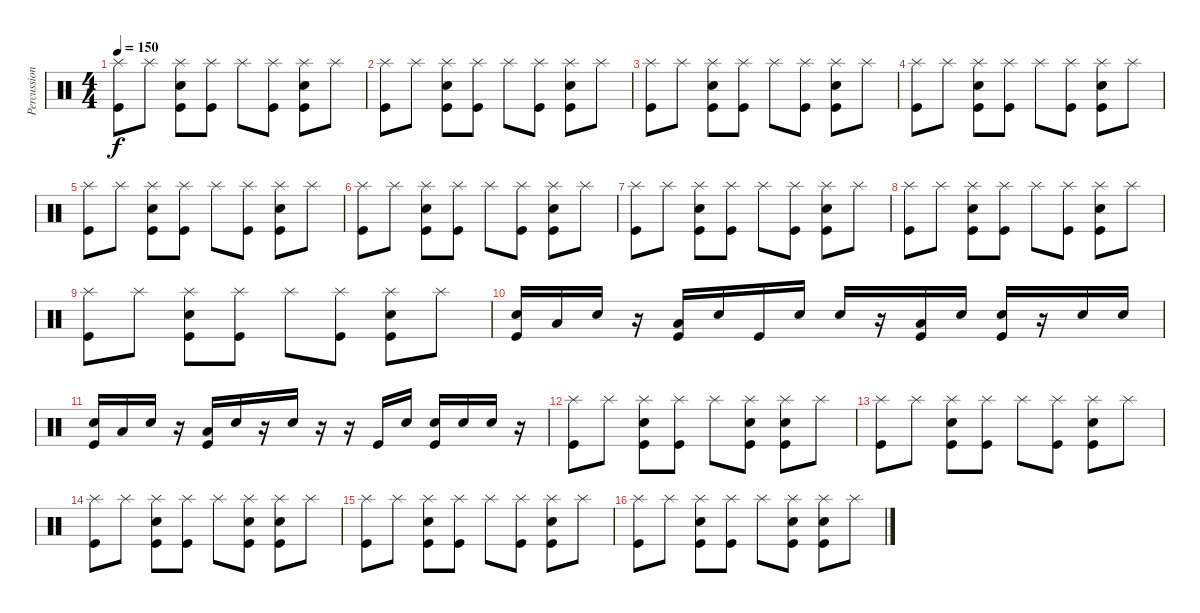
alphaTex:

\track ("Percussion" "Percussion") {instrument percussion}
\staff {score}
\articulation defaults
\ts (4 4)
\tempo 150
\clef neutral
\ks c
("Splash (hit)" "Kick (hit)").8{dy f} "Splash (hit)".8 ("Splash (hit)" "Snare (hit) 2" "Kick (hit)").8 ("Splash (hit)" "Kick (hit)").8 "Splash (hit)".8 ("Splash (hit)" "Kick (hit)").8 ("Splash (hit)" "Snare (hit) 2" "Kick (hit)").8 "Splash (hit)".8 |
("Splash (hit)" "Kick (hit)").8 "Splash (hit)".8 ("Splash (hit)" "Snare (hit) 2" "Kick (hit)").8 ("Splash (hit)" "Kick (hit)").8 "Splash (hit)".8 ("Splash (hit)" "Kick (hit)").8 ("Splash (hit)" "Snare (hit) 2" "Kick (hit)").8 "Splash (hit)".8 |
("Splash (hit)" "Kick (hit)").8 "Splash (hit)".8 ("Splash (hit)" "Snare (hit) 2" "Kick (hit)").8 ("Splash (hit)" "Kick (hit)").8 "Splash (hit)".8 ("Splash (hit)" "Kick (hit)").8 ("Splash (hit)" "Snare (hit) 2" "Kick (hit)").8 "Splash (hit)".8 |
("Splash (hit)" "Kick (hit)").8 "Splash (hit)".8 ("Splash (hit)" "Snare (hit) 2" "Kick (hit)").8 ("Splash (hit)" "Kick (hit)").8 "Splash (hit)".8 ("Splash (hit)" "Kick (hit)").8 ("Splash (hit)" "Snare (hit) 2" "Kick (hit)").8 "Splash (hit)".8 |
("Splash (hit)" "Kick (hit)").8 "Splash (hit)".8 ("Splash (hit)" "Snare (hit) 2" "Kick (hit)").8 ("Splash (hit)" "Kick (hit)").8 "Splash (hit)".8 ("Splash (hit)" "Kick (hit)").8 ("Splash (hit)" "Snare (hit) 2" "Kick (hit)").8 "Splash (hit)".8 |
("Splash (hit)" "Kick (hit)").8 "Splash (hit)".8 ("Splash (hit)" "Snare (hit) 2" "Kick (hit)").8 ("Splash (hit)" "Kick (hit)").8 "Splash (hit)".8 ("Splash (hit)" "Kick (hit)").8 ("Splash (hit)" "Snare (hit) 2" "Kick (hit)").8 "Splash (hit)".8 |
("Splash (hit)" "Kick (hit)").8 "Splash (hit)".8 ("Splash (hit)" "Snare (hit) 2" "Kick (hit)").8 ("Splash (hit)" "Kick (hit)").8 "Splash (hit)".8 ("Splash (hit)" "Kick (hit)").8 ("Splash (hit)" "Snare (hit) 2" "Kick (hit)").8 "Splash (hit)".8 |
("Splash (hit)" "Kick (hit)").8 "Splash (hit)".8 ("Splash (hit)" "Snare (hit) 2" "Kick (hit)").8 ("Splash (hit)" "Kick (hit)").8 "Splash (hit)".8 ("Splash (hit)" "Kick (hit)").8 ("Splash (hit)" "Snare (hit) 2" "Kick (hit)").8 "Splash (hit)".8 |
("Splash (hit)" "Kick (hit)").8 "Splash (hit)".8 ("Splash (hit)" "Snare (hit) 2" "Kick (hit)").8 ("Splash (hit)" "Kick (hit)").8 "Splash (hit)".8 ("Splash (hit)" "Kick (hit)").8 ("Splash (hit)" "Snare (hit) 2" "Kick (hit)").8 "Splash (hit)".8 |
("Snare (hit) 2" "Kick (hit)").16 "Low Tom (hit)".16 "Snare (hit) 2".16 r.16 ("Low Tom (hit)" "Kick (hit)").16 "Snare (hit) 2".16 "Kick (hit)".16 "Snare (hit) 2".16 "Snare (hit) 2".16 r.16 ("Low Tom (hit)" "Kick (hit)").16 "Snare (hit) 2".16 ("Snare (hit) 2" "Kick (hit)").16 r.16 "Snare (hit) 2".16 "Snare (hit) 2".16 |
("Snare (hit) 2" "Kick (hit)").16 "Low Tom (hit)".16 "Snare (hit) 2".16 r.16 ("Low Tom (hit)" "Kick (hit)").16 "Snare (hit) 2".16 r.16 "Snare (hit) 2".16 r.16 r.16 "Kick (hit)".16 "Snare (hit) 2".16 ("Snare (hit) 2" "Kick (hit)").16 "Snare (hit) 2".16 "Snare (hit) 2".16 r.16 |
("Splash (hit)" "Kick (hit)").8 "Splash (hit)".8 ("Splash (hit)" "Snare (hit) 2" "Kick (hit)").8 ("Splash (hit)" "Kick (hit)").8 "Splash (hit)".8 ("Splash (hit)" "Snare (hit) 2" "Kick (hit)").8 ("Splash (hit)" "Snare (hit) 2" "Kick (hit)").8 "Splash (hit)".8 |
("Splash (hit)" "Kick (hit)").8 "Splash (hit)".8 ("Splash (hit)" "Snare (hit) 2" "Kick (hit)").8 ("Splash (hit)" "Kick (hit)").8 "Splash (hit)".8 ("Splash (hit)" "Kick (hit)").8 ("Splash (hit)" "Snare (hit) 2" "Kick (hit)").8 "Splash (hit)".8 |
("Splash (hit)" "Kick (hit)").8 "Splash (hit)".8 ("Splash (hit)" "Snare (hit) 2" "Kick (hit)").8 ("Splash (hit)" "Kick (hit)").8 "Splash (hit)".8 ("Splash (hit)" "Snare (hit) 2" "Kick (hit)").8 ("Splash (hit)" "Snare (hit) 2" "Kick (hit)").8 "Splash (hit)".8 |
("Splash (hit)" "Kick (hit)").8 "Splash (hit)".8 ("Splash (hit)" "Snare (hit) 2" "Kick (hit)").8 ("Splash (hit)" "Kick (hit)").8 "Splash (hit)".8 ("Splash (hit)" "Kick (hit)").8 ("Splash (hit)" "Snare (hit) 2" "Kick (hit)").8 "Splash (hit)".8 |
("Splash (hit)" "Kick (hit)").8 "Splash (hit)".8 ("Splash (hit)" "Snare (hit) 2" "Kick (hit)").8 ("Splash (hit)" "Kick (hit)").8 "Splash (hit)".8 ("Splash (hit)" "Snare (hit) 2" "Kick (hit)").8 ("Splash (hit)" "Snare (hit) 2" "Kick (hit)").8 "Splash (hit)".8
